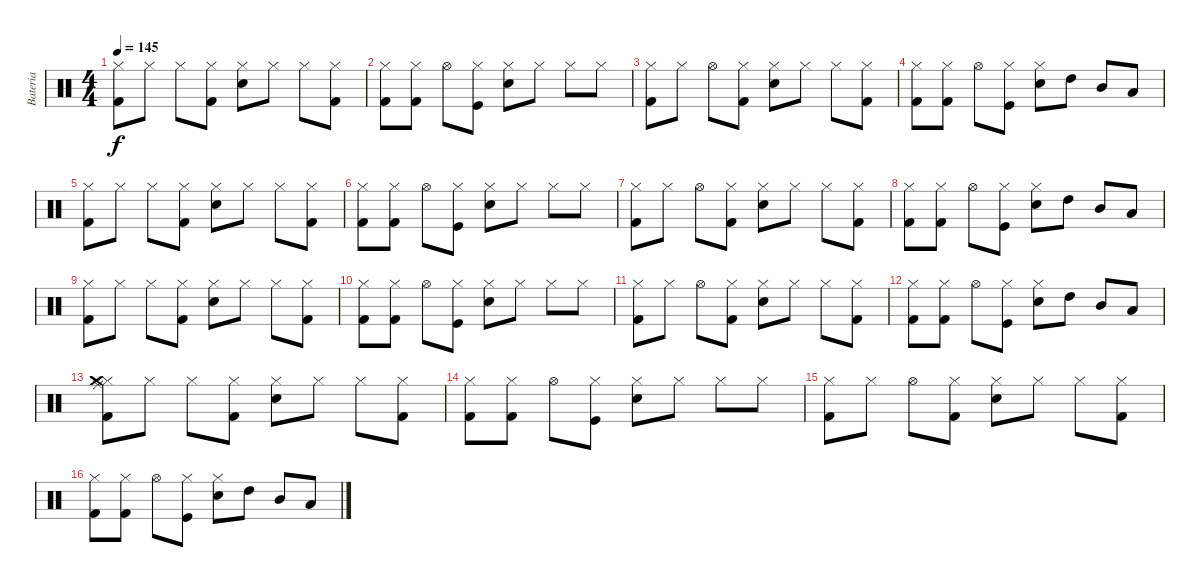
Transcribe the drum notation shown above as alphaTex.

\track ("Bateria" "Bateria") {instrument percussion}
\staff {score}
\articulation defaults
\ts (4 4)
\tempo 145
\clef neutral
\ks c
("Kick (hit) 2" "Hi-Hat (closed)").8{dy f} "Hi-Hat (closed)".8 "Hi-Hat (closed)".8 ("Kick (hit) 2" "Hi-Hat (closed)").8 ("Electric Snare (hit)" "Hi-Hat (closed)").8 "Hi-Hat (closed)".8 "Hi-Hat (closed)".8 ("Kick (hit) 2" "Hi-Hat (closed)").8 |
("Kick (hit) 2" "Hi-Hat (closed)").8 ("Kick (hit) 2" "Hi-Hat (closed)").8 "Hi-Hat (open)".8 ("Kick (hit)" "Hi-Hat (closed)").8 ("Electric Snare (hit)" "Hi-Hat (closed)").8 "Hi-Hat (closed)".8 "Hi-Hat (closed)".8 "Hi-Hat (closed)".8 |
("Kick (hit) 2" "Hi-Hat (closed)").8 "Hi-Hat (closed)".8 "Hi-Hat (open)".8 ("Kick (hit) 2" "Hi-Hat (closed)").8 ("Electric Snare (hit)" "Hi-Hat (closed)").8 "Hi-Hat (closed)".8 "Hi-Hat (closed)".8 ("Kick (hit) 2" "Hi-Hat (closed)").8 |
("Kick (hit) 2" "Hi-Hat (closed)").8 ("Kick (hit) 2" "Hi-Hat (closed)").8 "Hi-Hat (open)".8 ("Kick (hit)" "Hi-Hat (closed)").8 ("Electric Snare (hit)" "Hi-Hat (closed)").8 "High Tom (hit)".8 "Mid Tom (hit)".8 "Low Tom (hit)".8 |
("Kick (hit) 2" "Hi-Hat (closed)").8 "Hi-Hat (closed)".8 "Hi-Hat (closed)".8 ("Kick (hit) 2" "Hi-Hat (closed)").8 ("Electric Snare (hit)" "Hi-Hat (closed)").8 "Hi-Hat (closed)".8 "Hi-Hat (closed)".8 ("Kick (hit) 2" "Hi-Hat (closed)").8 |
("Kick (hit) 2" "Hi-Hat (closed)").8 ("Kick (hit) 2" "Hi-Hat (closed)").8 "Hi-Hat (open)".8 ("Kick (hit)" "Hi-Hat (closed)").8 ("Electric Snare (hit)" "Hi-Hat (closed)").8 "Hi-Hat (closed)".8 "Hi-Hat (closed)".8 "Hi-Hat (closed)".8 |
("Kick (hit) 2" "Hi-Hat (closed)").8 "Hi-Hat (closed)".8 "Hi-Hat (open)".8 ("Kick (hit) 2" "Hi-Hat (closed)").8 ("Electric Snare (hit)" "Hi-Hat (closed)").8 "Hi-Hat (closed)".8 "Hi-Hat (closed)".8 ("Kick (hit) 2" "Hi-Hat (closed)").8 |
("Kick (hit) 2" "Hi-Hat (closed)").8 ("Kick (hit) 2" "Hi-Hat (closed)").8 "Hi-Hat (open)".8 ("Kick (hit)" "Hi-Hat (closed)").8 ("Electric Snare (hit)" "Hi-Hat (closed)").8 "High Tom (hit)".8 "Mid Tom (hit)".8 "Low Tom (hit)".8 |
("Kick (hit) 2" "Hi-Hat (closed)").8 "Hi-Hat (closed)".8 "Hi-Hat (closed)".8 ("Kick (hit) 2" "Hi-Hat (closed)").8 ("Electric Snare (hit)" "Hi-Hat (closed)").8 "Hi-Hat (closed)".8 "Hi-Hat (closed)".8 ("Kick (hit) 2" "Hi-Hat (closed)").8 |
("Kick (hit) 2" "Hi-Hat (closed)").8 ("Kick (hit) 2" "Hi-Hat (closed)").8 "Hi-Hat (open)".8 ("Kick (hit)" "Hi-Hat (closed)").8 ("Electric Snare (hit)" "Hi-Hat (closed)").8 "Hi-Hat (closed)".8 "Hi-Hat (closed)".8 "Hi-Hat (closed)".8 |
("Kick (hit) 2" "Hi-Hat (closed)").8 "Hi-Hat (closed)".8 "Hi-Hat (open)".8 ("Kick (hit) 2" "Hi-Hat (closed)").8 ("Electric Snare (hit)" "Hi-Hat (closed)").8 "Hi-Hat (closed)".8 "Hi-Hat (closed)".8 ("Kick (hit) 2" "Hi-Hat (closed)").8 |
("Kick (hit) 2" "Hi-Hat (closed)").8 ("Kick (hit) 2" "Hi-Hat (closed)").8 "Hi-Hat (open)".8 ("Kick (hit)" "Hi-Hat (closed)").8 ("Electric Snare (hit)" "Hi-Hat (closed)").8 "High Tom (hit)".8 "Mid Tom (hit)".8 "Low Tom (hit)".8 |
("Kick (hit) 2" "Hi-Hat (closed)" "Crash medium (hit)" "Ride (middle)").8 "Hi-Hat (closed)".8 "Hi-Hat (closed)".8 ("Kick (hit) 2" "Hi-Hat (closed)").8 ("Electric Snare (hit)" "Hi-Hat (closed)").8 "Hi-Hat (closed)".8 "Hi-Hat (closed)".8 ("Kick (hit) 2" "Hi-Hat (closed)").8 |
("Kick (hit) 2" "Hi-Hat (closed)").8 ("Kick (hit) 2" "Hi-Hat (closed)").8 "Hi-Hat (open)".8 ("Kick (hit)" "Hi-Hat (closed)").8 ("Electric Snare (hit)" "Hi-Hat (closed)").8 "Hi-Hat (closed)".8 "Hi-Hat (closed)".8 "Hi-Hat (closed)".8 |
("Kick (hit) 2" "Hi-Hat (closed)").8 "Hi-Hat (closed)".8 "Hi-Hat (open)".8 ("Kick (hit) 2" "Hi-Hat (closed)").8 ("Electric Snare (hit)" "Hi-Hat (closed)").8 "Hi-Hat (closed)".8 "Hi-Hat (closed)".8 ("Kick (hit) 2" "Hi-Hat (closed)").8 |
("Kick (hit) 2" "Hi-Hat (closed)").8 ("Kick (hit) 2" "Hi-Hat (closed)").8 "Hi-Hat (open)".8 ("Kick (hit)" "Hi-Hat (closed)").8 ("Electric Snare (hit)" "Hi-Hat (closed)").8 "High Tom (hit)".8 "Mid Tom (hit)".8 "Low Tom (hit)".8
